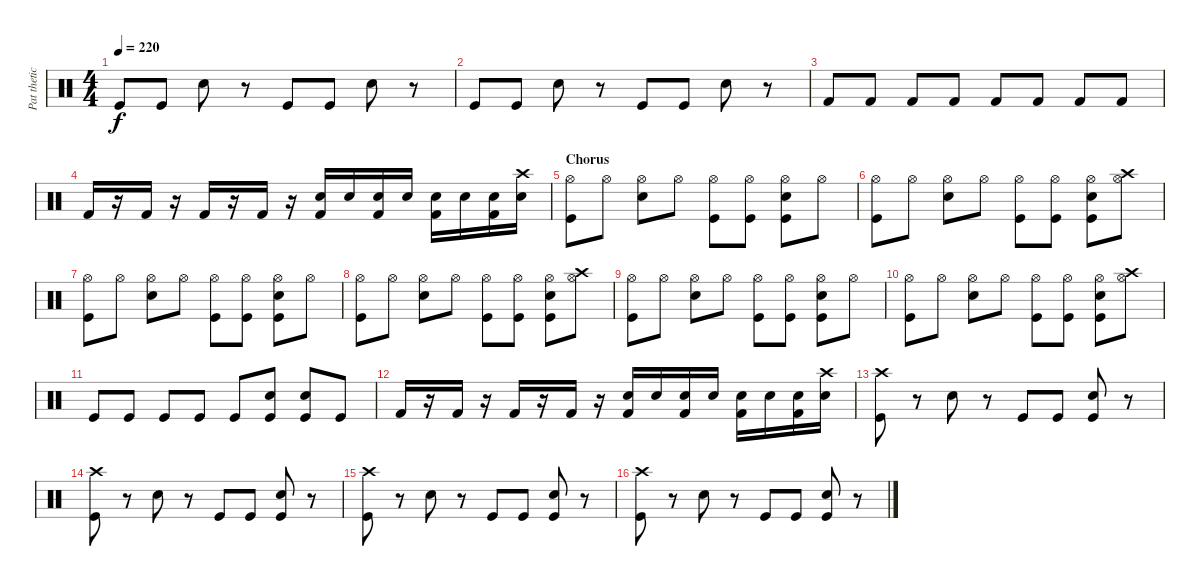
\track ("Pat thetic " "Pat thetic") {instrument percussion}
\staff {score}
\articulation defaults
\ts (4 4)
\tempo 220
\clef neutral
\ks c "Kick (hit)".8{dy f} "Kick (hit)".8 "Electric Snare (hit)".8
r.8 "Kick (hit)".8 "Kick (hit)".8 "Electric Snare (hit)".8 r.8 |
"Kick (hit)".8 "Kick (hit)".8 "Electric Snare (hit)".8 r.8 "Kick (hit)".8 "Kick (hit)".8 "Electric Snare (hit)".8 r.8 |
"Kick (hit) 2".8 "Kick (hit) 2".8 "Kick (hit) 2".8 "Kick (hit) 2".8 "Kick (hit) 2".8 "Kick (hit) 2".8 "Kick (hit) 2".8 "Kick (hit) 2".8 |
"Kick (hit) 2".16 r.16 "Kick (hit) 2".16 r.16 "Kick (hit) 2".16 r.16 "Kick (hit) 2".16 r.16 ("Kick (hit) 2" "Electric Snare (hit)").16 "Electric Snare (hit)".16 ("Kick (hit) 2" "Electric Snare (hit)").16 "Electric Snare (hit)".16 ("Kick (hit) 2" "Electric Snare (hit)").16 "Electric Snare (hit)".16 ("Kick (hit) 2" "Electric Snare (hit)").16 ("Electric Snare (hit)" "Crash high (hit)").16 |
\section ("" "Chorus")
("Kick (hit)" "Hi-Hat (open)").8 "Hi-Hat (open)".8 ("Electric Snare (hit)" "Hi-Hat (open)").8 "Hi-Hat (open)".8 ("Kick (hit)" "Hi-Hat (open)").8 ("Kick (hit)" "Hi-Hat (open)").8 ("Kick (hit)" "Electric Snare (hit)" "Hi-Hat (open)").8 "Hi-Hat (open)".8 |
("Kick (hit)" "Hi-Hat (open)").8 "Hi-Hat (open)".8 ("Electric Snare (hit)" "Hi-Hat (open)").8 "Hi-Hat (open)".8 ("Kick (hit)" "Hi-Hat (open)").8 ("Kick (hit)" "Hi-Hat (open)").8 ("Kick (hit)" "Electric Snare (hit)" "Hi-Hat (open)").8 ("Crash high (hit)" "Hi-Hat (open)").8 |
("Kick (hit)" "Hi-Hat (open)").8 "Hi-Hat (open)".8 ("Electric Snare (hit)" "Hi-Hat (open)").8 "Hi-Hat (open)".8 ("Kick (hit)" "Hi-Hat (open)").8 ("Kick (hit)" "Hi-Hat (open)").8 ("Kick (hit)" "Electric Snare (hit)" "Hi-Hat (open)").8 "Hi-Hat (open)".8 |
("Kick (hit)" "Hi-Hat (open)").8 "Hi-Hat (open)".8 ("Electric Snare (hit)" "Hi-Hat (open)").8 "Hi-Hat (open)".8 ("Kick (hit)" "Hi-Hat (open)").8 ("Kick (hit)" "Hi-Hat (open)").8 ("Kick (hit)" "Electric Snare (hit)" "Hi-Hat (open)").8 ("Crash high (hit)" "Hi-Hat (open)").8 |
("Kick (hit)" "Hi-Hat (open)").8 "Hi-Hat (open)".8 ("Electric Snare (hit)" "Hi-Hat (open)").8 "Hi-Hat (open)".8 ("Kick (hit)" "Hi-Hat (open)").8 ("Kick (hit)" "Hi-Hat (open)").8 ("Kick (hit)" "Electric Snare (hit)" "Hi-Hat (open)").8 "Hi-Hat (open)".8 |
("Kick (hit)" "Hi-Hat (open)").8 "Hi-Hat (open)".8 ("Electric Snare (hit)" "Hi-Hat (open)").8 "Hi-Hat (open)".8 ("Kick (hit)" "Hi-Hat (open)").8 ("Kick (hit)" "Hi-Hat (open)").8 ("Kick (hit)" "Electric Snare (hit)" "Hi-Hat (open)").8 ("Crash high (hit)" "Hi-Hat (open)").8 |
"Kick (hit)".8 "Kick (hit)".8 "Kick (hit)".8 "Kick (hit)".8 "Kick (hit)".8 ("Kick (hit)" "Electric Snare (hit)").8 ("Kick (hit)" "Electric Snare (hit)").8 "Kick (hit)".8 |
"Kick (hit) 2".16 r.16 "Kick (hit) 2".16 r.16 "Kick (hit) 2".16 r.16 "Kick (hit) 2".16 r.16 ("Kick (hit) 2" "Electric Snare (hit)").16 "Electric Snare (hit)".16 ("Kick (hit) 2" "Electric Snare (hit)").16 "Electric Snare (hit)".16 ("Kick (hit) 2" "Electric Snare (hit)").16 "Electric Snare (hit)".16 ("Kick (hit) 2" "Electric Snare (hit)").16 ("Electric Snare (hit)" "Crash high (hit)").16 |
("Kick (hit)" "Crash high (hit)").8 r.8 "Electric Snare (hit)".8 r.8 "Kick (hit)".8 "Kick (hit)".8 ("Kick (hit)" "Electric Snare (hit)").8 r.8 |
("Kick (hit)" "Crash high (hit)").8 r.8 "Electric Snare (hit)".8 r.8 "Kick (hit)".8 "Kick (hit)".8 ("Kick (hit)" "Electric Snare (hit)").8 r.8 |
("Kick (hit)" "Crash high (hit)").8 r.8 "Electric Snare (hit)".8 r.8 "Kick (hit)".8 "Kick (hit)".8 ("Kick (hit)" "Electric Snare (hit)").8 r.8 |
("Kick (hit)" "Crash high (hit)").8 r.8 "Electric Snare (hit)".8 r.8 "Kick (hit)".8 "Kick (hit)".8 ("Kick (hit)" "Electric Snare (hit)").8 r.8
